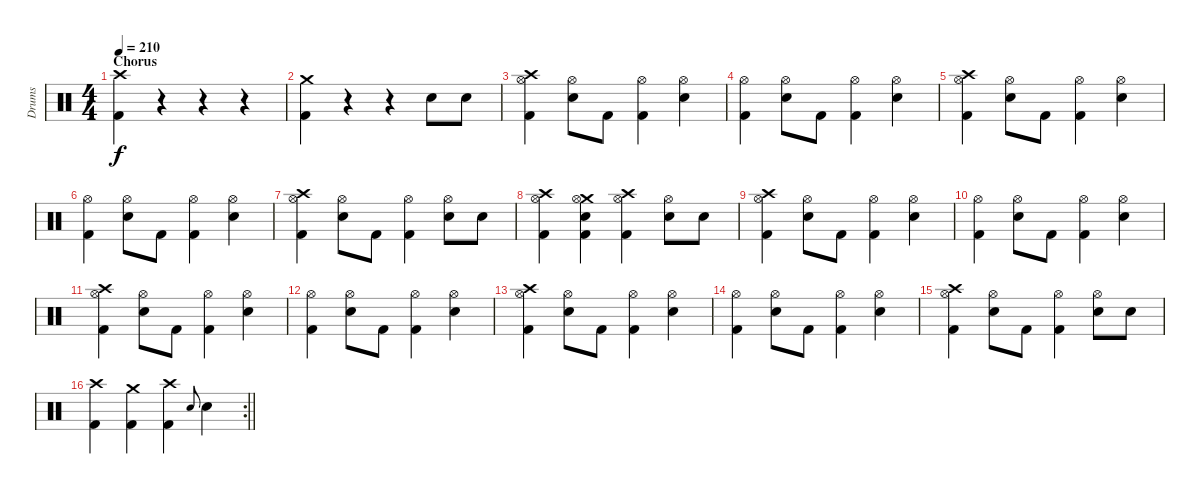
\track ("Drums" "Drums") {instrument percussion}
\staff {score}
\articulation defaults
\ts (4 4)
\section ("" "Chorus")
\tempo 210
\clef neutral
\ks c
("Crash high (hit)" "Kick (hit) 2").4{dy f} r.4 r.4 r.4 |
("Crash medium (hit)" "Kick (hit) 2").4 r.4 r.4 "Snare (hit) 2".8 "Snare (hit) 2".8 |
("Crash high (hit)" "Hi-Hat (open)" "Kick (hit) 2").4 ("Hi-Hat (open)" "Snare (hit) 2").8 "Kick (hit) 2".8 ("Hi-Hat (open)" "Kick (hit) 2").4 ("Hi-Hat (open)" "Snare (hit) 2").4 |
("Hi-Hat (open)" "Kick (hit) 2").4 ("Hi-Hat (open)" "Snare (hit) 2").8 "Kick (hit) 2".8 ("Hi-Hat (open)" "Kick (hit) 2").4 ("Hi-Hat (open)" "Snare (hit) 2").4 |
("Crash high (hit)" "Hi-Hat (open)" "Kick (hit) 2").4 ("Hi-Hat (open)" "Snare (hit) 2").8 "Kick (hit) 2".8 ("Hi-Hat (open)" "Kick (hit) 2").4 ("Hi-Hat (open)" "Snare (hit) 2").4 |
("Hi-Hat (open)" "Kick (hit) 2").4 ("Hi-Hat (open)" "Snare (hit) 2").8 "Kick (hit) 2".8 ("Hi-Hat (open)" "Kick (hit) 2").4 ("Hi-Hat (open)" "Snare (hit) 2").4 |
("Crash high (hit)" "Hi-Hat (open)" "Kick (hit) 2").4 ("Hi-Hat (open)" "Snare (hit) 2").8 "Kick (hit) 2".8 ("Hi-Hat (open)" "Kick (hit) 2").4 ("Hi-Hat (open)" "Snare (hit) 2").8 "Snare (hit) 2".8 |
("Crash high (hit)" "Hi-Hat (open)" "Kick (hit) 2").4 ("Crash medium (hit)" "Hi-Hat (open)" "Snare (hit) 2" "Kick (hit) 2").4 ("Crash high (hit)" "Hi-Hat (open)" "Kick (hit) 2").4 ("Hi-Hat (open)" "Snare (hit) 2").8 "Snare (hit) 2".8 |
("Crash high (hit)" "Hi-Hat (open)" "Kick (hit) 2").4 ("Hi-Hat (open)" "Snare (hit) 2").8 "Kick (hit) 2".8 ("Hi-Hat (open)" "Kick (hit) 2").4 ("Hi-Hat (open)" "Snare (hit) 2").4 |
("Hi-Hat (open)" "Kick (hit) 2").4 ("Hi-Hat (open)" "Snare (hit) 2").8 "Kick (hit) 2".8 ("Hi-Hat (open)" "Kick (hit) 2").4 ("Hi-Hat (open)" "Snare (hit) 2").4 |
("Crash high (hit)" "Hi-Hat (open)" "Kick (hit) 2").4 ("Hi-Hat (open)" "Snare (hit) 2").8 "Kick (hit) 2".8 ("Hi-Hat (open)" "Kick (hit) 2").4 ("Hi-Hat (open)" "Snare (hit) 2").4 |
("Hi-Hat (open)" "Kick (hit) 2").4 ("Hi-Hat (open)" "Snare (hit) 2").8 "Kick (hit) 2".8 ("Hi-Hat (open)" "Kick (hit) 2").4 ("Hi-Hat (open)" "Snare (hit) 2").4 |
("Crash high (hit)" "Hi-Hat (open)" "Kick (hit) 2").4 ("Hi-Hat (open)" "Snare (hit) 2").8 "Kick (hit) 2".8 ("Hi-Hat (open)" "Kick (hit) 2").4 ("Hi-Hat (open)" "Snare (hit) 2").4 |
("Hi-Hat (open)" "Kick (hit) 2").4 ("Hi-Hat (open)" "Snare (hit) 2").8 "Kick (hit) 2".8 ("Hi-Hat (open)" "Kick (hit) 2").4 ("Hi-Hat (open)" "Snare (hit) 2").4 |
("Crash high (hit)" "Hi-Hat (open)" "Kick (hit) 2").4 ("Hi-Hat (open)" "Snare (hit) 2").8 "Kick (hit) 2".8 ("Hi-Hat (open)" "Kick (hit) 2").4 ("Hi-Hat (open)" "Snare (hit) 2").8 "Snare (hit) 2".8 |
\rc 2
\barLineRight lightlight
("Crash high (hit)" "Kick (hit) 2").4 ("Crash medium (hit)" "Kick (hit) 2").4 ("Crash high (hit)" "Kick (hit) 2").4 "Snare (hit) 2".8{gr onbeat} "Snare (hit) 2".4
